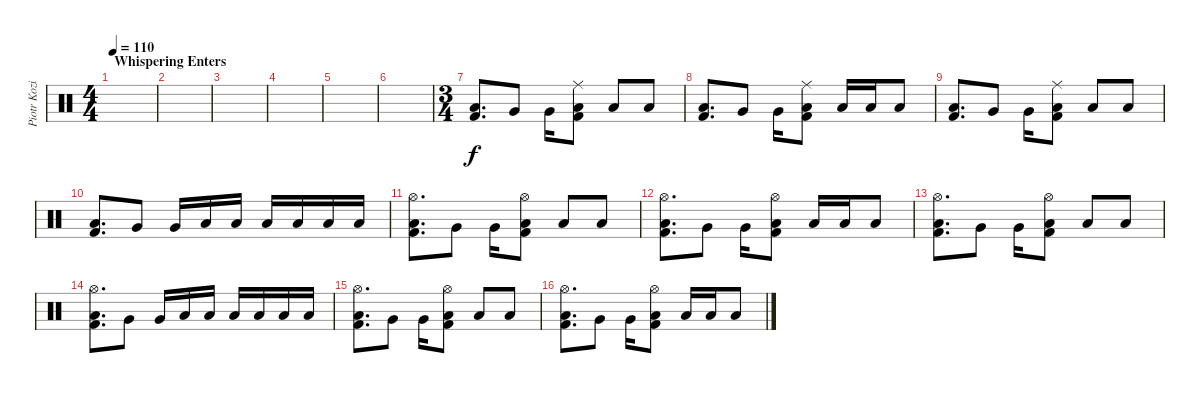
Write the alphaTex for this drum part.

\track ("Piotr Kozieradzki" "Piotr Kozi") {instrument percussion}
\staff {score}
\articulation defaults
\ts (4 4)
\section ("" "Whispering Enters")
\tempo 110
\clef neutral
\ks c
|
|
|
|
|
|
\ts (3 4)
("Low Tom (hit)" "Kick (hit) 2").8{d} "Very Low Tom (hit)".8 "Very Low Tom (hit)".16 ("Ride (middle)" "Low Tom (hit)" "Kick (hit) 2").8 "Low Tom (hit)".8 "Low Tom (hit)".8 |
("Low Tom (hit)" "Kick (hit) 2").8{d} "Very Low Tom (hit)".8 "Very Low Tom (hit)".16 ("Ride (middle)" "Low Tom (hit)" "Kick (hit) 2").8 "Low Tom (hit)".16 "Low Tom (hit)".16 "Low Tom (hit)".8 |
("Low Tom (hit)" "Kick (hit) 2").8{d} "Very Low Tom (hit)".8 "Very Low Tom (hit)".16 ("Ride (middle)" "Low Tom (hit)" "Kick (hit) 2").8 "Low Tom (hit)".8 "Low Tom (hit)".8 |
("Low Tom (hit)" "Kick (hit) 2").8{d} "Very Low Tom (hit)".8 "Very Low Tom (hit)".16 "Low Tom (hit)".16 "Low Tom (hit)".16 "Low Tom (hit)".16 "Low Tom (hit)".16 "Low Tom (hit)".16 "Low Tom (hit)".16 |
("Hi-Hat (open)" "Low Tom (hit)" "Kick (hit) 2").8{d} "Very Low Tom (hit)".8 "Very Low Tom (hit)".16 ("Hi-Hat (open)" "Low Tom (hit)" "Kick (hit) 2").8 "Low Tom (hit)".8 "Low Tom (hit)".8 |
("Hi-Hat (open)" "Low Tom (hit)" "Kick (hit) 2").8{d} "Very Low Tom (hit)".8 "Very Low Tom (hit)".16 ("Hi-Hat (open)" "Low Tom (hit)" "Kick (hit) 2").8 "Low Tom (hit)".16 "Low Tom (hit)".16 "Low Tom (hit)".8 |
("Hi-Hat (open)" "Low Tom (hit)" "Kick (hit) 2").8{d} "Very Low Tom (hit)".8 "Very Low Tom (hit)".16 ("Hi-Hat (open)" "Low Tom (hit)" "Kick (hit) 2").8 "Low Tom (hit)".8 "Low Tom (hit)".8 |
("Hi-Hat (open)" "Low Tom (hit)" "Kick (hit) 2").8{d} "Very Low Tom (hit)".8 "Very Low Tom (hit)".16 "Low Tom (hit)".16 "Low Tom (hit)".16 "Low Tom (hit)".16 "Low Tom (hit)".16 "Low Tom (hit)".16 "Low Tom (hit)".16 |
("Hi-Hat (open)" "Low Tom (hit)" "Kick (hit) 2").8{d} "Very Low Tom (hit)".8 "Very Low Tom (hit)".16 ("Hi-Hat (open)" "Low Tom (hit)" "Kick (hit) 2").8 "Low Tom (hit)".8 "Low Tom (hit)".8 |
("Hi-Hat (open)" "Low Tom (hit)" "Kick (hit) 2").8{d} "Very Low Tom (hit)".8 "Very Low Tom (hit)".16 ("Hi-Hat (open)" "Low Tom (hit)" "Kick (hit) 2").8 "Low Tom (hit)".16 "Low Tom (hit)".16 "Low Tom (hit)".8
